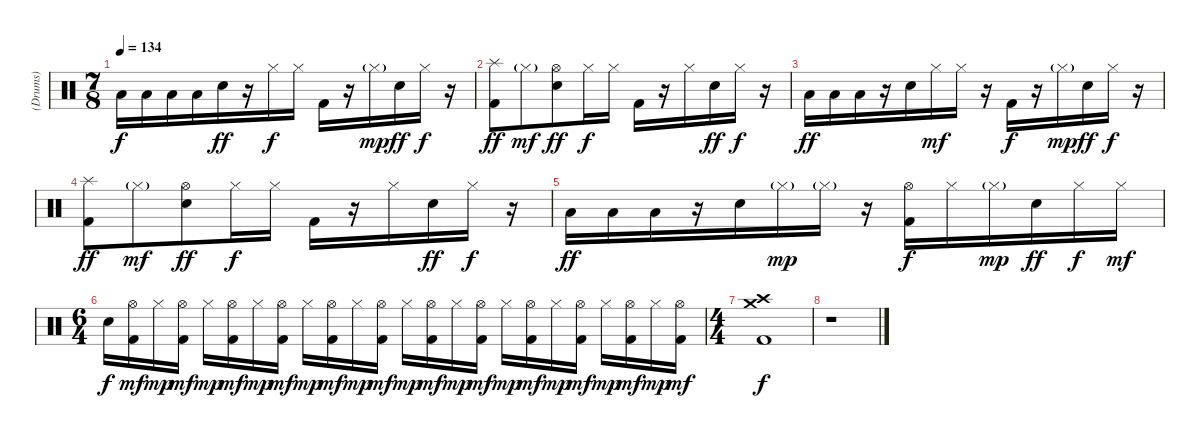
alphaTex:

\track ("(Drums)" "(Drums)") {instrument percussion}
\staff {score}
\articulation defaults
\ts (7 8)
\tempo 134
\clef neutral
\ks c "Low Tom (hit)".16{dy f} "Low Tom (hit)".16 "Low Tom (hit)".16 "Low Tom (hit)".16 "Electric Snare (hit)".16{dy ff}
r.16 "Hi-Hat (closed)".16{dy f} "Hi-Hat (closed)".16 "Kick (hit) 2".16 r.16 "Hi-Hat (closed)"{g}.16{dy mp} "Electric Snare (hit)".16{dy ff} "Hi-Hat (closed)".16{dy f} r.16 |
("Splash (hit)" "Kick (hit) 2").8{dy ff} "Hi-Hat (closed)"{g}.8{dy mf} ("Hi-Hat (open)" "Electric Snare (hit)").8{dy ff} "Hi-Hat (closed)".16{dy f} "Hi-Hat (closed)".16 "Kick (hit) 2".16 r.16 "Hi-Hat (closed)".16 "Electric Snare (hit)".16{dy ff} "Hi-Hat (closed)".16{dy f} r.16 |
"Low Tom (hit)".16{dy ff volume 13} "Low Tom (hit)".16 "Low Tom (hit)".16 r.16 "Electric Snare (hit)".16 "Hi-Hat (closed)".16{dy mf} "Hi-Hat (closed)".16 r.16 "Kick (hit) 2".16{dy f} r.16 "Hi-Hat (closed)"{g}.16{dy mp} "Electric Snare (hit)".16{dy ff} "Hi-Hat (closed)".16{dy f} r.16 |
("Splash (hit)" "Kick (hit) 2").8{dy ff} "Hi-Hat (closed)"{g}.8{dy mf} ("Hi-Hat (open)" "Electric Snare (hit)").8{dy ff} "Hi-Hat (closed)".16{dy f} "Hi-Hat (closed)".16 "Kick (hit) 2".16 r.16 "Hi-Hat (closed)".16 "Electric Snare (hit)".16{dy ff} "Hi-Hat (closed)".16{dy f} r.16 |
"Low Tom (hit)".16{dy ff} "Low Tom (hit)".16 "Low Tom (hit)".16 r.16 "Electric Snare (hit)".16 "Hi-Hat (closed)"{g}.16{dy mp} "Hi-Hat (closed)"{g}.16 r.16 ("Hi-Hat (open)" "Kick (hit) 2").16{dy f} "Hi-Hat (closed)".16 "Hi-Hat (closed)"{g}.16{dy mp} "Electric Snare (hit)".16{dy ff} "Hi-Hat (closed)".16{dy f} "Hi-Hat (closed)".16{dy mf} |
\ts (6 4)
"Electric Snare (hit)".16{dy f} ("Hi-Hat (open)" "Kick (hit) 2").16{dy mf} "Hi-Hat (closed)".16{dy mp} ("Hi-Hat (open)" "Kick (hit) 2").16{dy mf} "Hi-Hat (closed)".16{dy mp} ("Hi-Hat (open)" "Kick (hit) 2").16{dy mf} "Hi-Hat (closed)".16{dy mp} ("Hi-Hat (open)" "Kick (hit) 2").16{dy mf} "Hi-Hat (closed)".16{dy mp} ("Hi-Hat (open)" "Kick (hit) 2").16{dy mf} "Hi-Hat (closed)".16{dy mp} ("Hi-Hat (open)" "Kick (hit) 2").16{dy mf} "Hi-Hat (closed)".16{dy mp} ("Hi-Hat (open)" "Kick (hit) 2").16{dy mf} "Hi-Hat (closed)".16{dy mp} ("Hi-Hat (open)" "Kick (hit) 2").16{dy mf} "Hi-Hat (closed)".16{dy mp} ("Hi-Hat (open)" "Kick (hit) 2").16{dy mf} "Hi-Hat (closed)".16{dy mp} ("Hi-Hat (open)" "Kick (hit) 2").16{dy mf} "Hi-Hat (closed)".16{dy mp} ("Hi-Hat (open)" "Kick (hit) 2").16{dy mf} "Hi-Hat (closed)".16{dy mp} ("Hi-Hat (open)" "Kick (hit) 2").16{dy mf} |
\ts (4 4)
("Crash medium (hit)" "Crash high (hit)" "Kick (hit) 2").1{dy f} |
r.1
